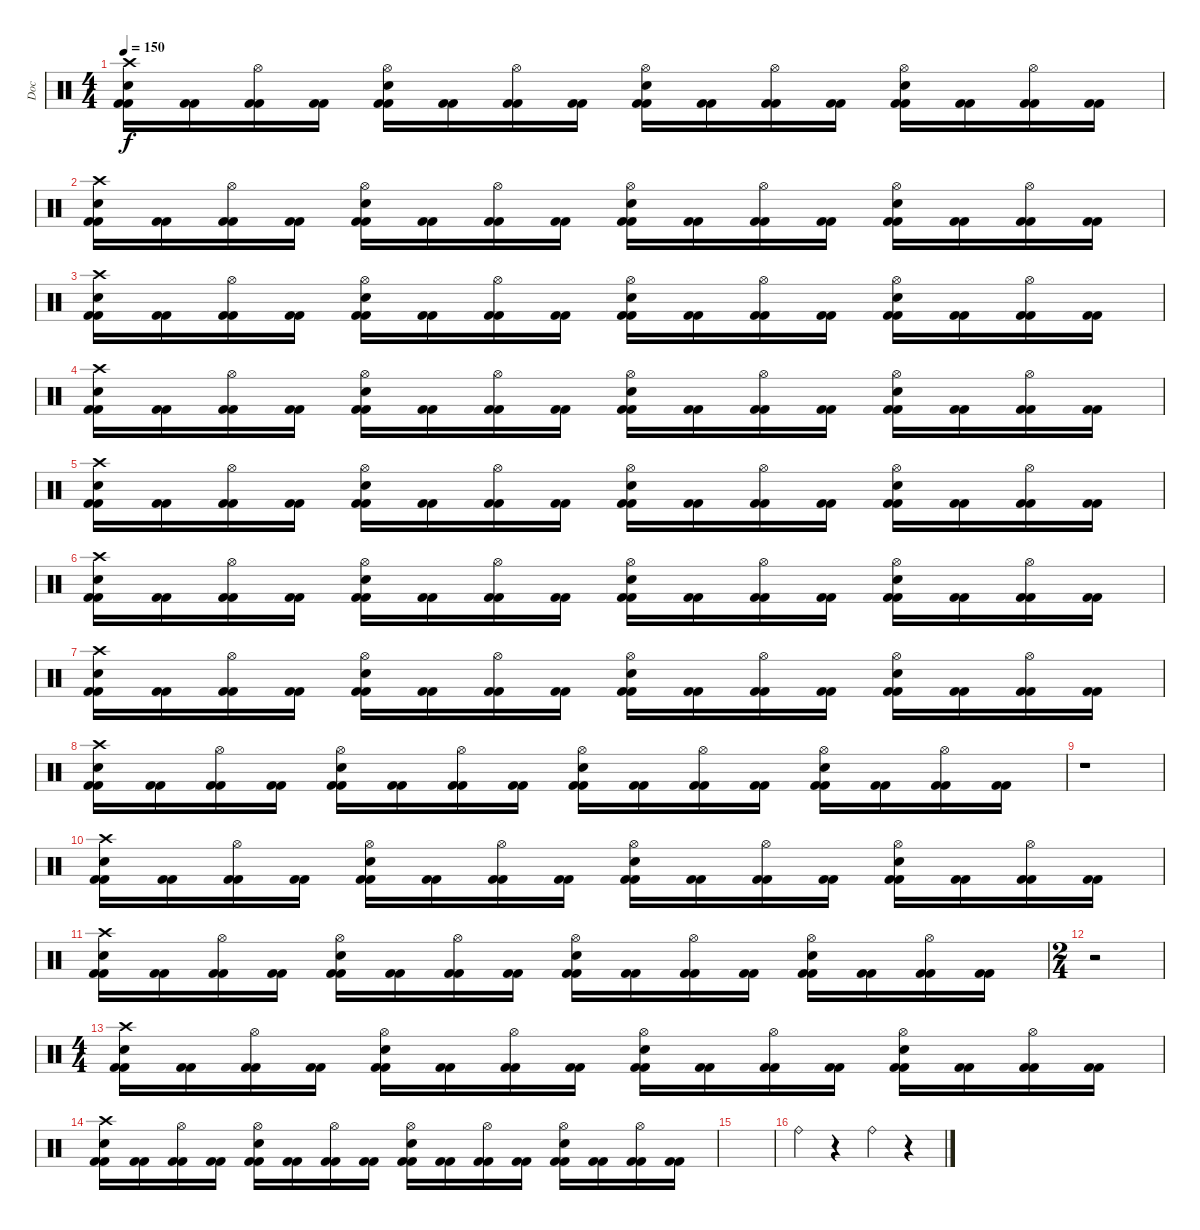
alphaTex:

\track ("Doc" "Doc") {instrument percussion}
\staff {score}
\articulation defaults
\ts (4 4)
\tempo 150
\clef neutral
\ks c
("Kick (hit) 2" "Crash high (hit)" "Electric Snare (hit)" "Kick (hit) 2").16{dy f} ("Kick (hit) 2" "Kick (hit) 2").16 ("Kick (hit) 2" "Hi-Hat (open)" "Kick (hit) 2").16 ("Kick (hit) 2" "Kick (hit) 2").16 ("Kick (hit) 2" "Hi-Hat (open)" "Electric Snare (hit)" "Kick (hit) 2").16 ("Kick (hit) 2" "Kick (hit) 2").16 ("Kick (hit) 2" "Hi-Hat (open)" "Kick (hit) 2").16 ("Kick (hit) 2" "Kick (hit) 2").16 ("Kick (hit) 2" "Hi-Hat (open)" "Electric Snare (hit)" "Kick (hit) 2").16 ("Kick (hit) 2" "Kick (hit) 2").16 ("Kick (hit) 2" "Hi-Hat (open)" "Kick (hit) 2").16 ("Kick (hit) 2" "Kick (hit) 2").16 ("Kick (hit) 2" "Hi-Hat (open)" "Electric Snare (hit)" "Kick (hit) 2").16 ("Kick (hit) 2" "Kick (hit) 2").16 ("Kick (hit) 2" "Hi-Hat (open)" "Kick (hit) 2").16 ("Kick (hit) 2" "Kick (hit) 2").16 |
("Kick (hit) 2" "Crash high (hit)" "Electric Snare (hit)" "Kick (hit) 2").16 ("Kick (hit) 2" "Kick (hit) 2").16 ("Kick (hit) 2" "Hi-Hat (open)" "Kick (hit) 2").16 ("Kick (hit) 2" "Kick (hit) 2").16 ("Kick (hit) 2" "Hi-Hat (open)" "Electric Snare (hit)" "Kick (hit) 2").16 ("Kick (hit) 2" "Kick (hit) 2").16 ("Kick (hit) 2" "Hi-Hat (open)" "Kick (hit) 2").16 ("Kick (hit) 2" "Kick (hit) 2").16 ("Kick (hit) 2" "Hi-Hat (open)" "Electric Snare (hit)" "Kick (hit) 2").16 ("Kick (hit) 2" "Kick (hit) 2").16 ("Kick (hit) 2" "Hi-Hat (open)" "Kick (hit) 2").16 ("Kick (hit) 2" "Kick (hit) 2").16 ("Kick (hit) 2" "Hi-Hat (open)" "Electric Snare (hit)" "Kick (hit) 2").16 ("Kick (hit) 2" "Kick (hit) 2").16 ("Kick (hit) 2" "Hi-Hat (open)" "Kick (hit) 2").16 ("Kick (hit) 2" "Kick (hit) 2").16 |
("Kick (hit) 2" "Crash high (hit)" "Electric Snare (hit)" "Kick (hit) 2").16 ("Kick (hit) 2" "Kick (hit) 2").16 ("Kick (hit) 2" "Hi-Hat (open)" "Kick (hit) 2").16 ("Kick (hit) 2" "Kick (hit) 2").16 ("Kick (hit) 2" "Hi-Hat (open)" "Electric Snare (hit)" "Kick (hit) 2").16 ("Kick (hit) 2" "Kick (hit) 2").16 ("Kick (hit) 2" "Hi-Hat (open)" "Kick (hit) 2").16 ("Kick (hit) 2" "Kick (hit) 2").16 ("Kick (hit) 2" "Hi-Hat (open)" "Electric Snare (hit)" "Kick (hit) 2").16 ("Kick (hit) 2" "Kick (hit) 2").16 ("Kick (hit) 2" "Hi-Hat (open)" "Kick (hit) 2").16 ("Kick (hit) 2" "Kick (hit) 2").16 ("Kick (hit) 2" "Hi-Hat (open)" "Electric Snare (hit)" "Kick (hit) 2").16 ("Kick (hit) 2" "Kick (hit) 2").16 ("Kick (hit) 2" "Hi-Hat (open)" "Kick (hit) 2").16 ("Kick (hit) 2" "Kick (hit) 2").16 |
("Kick (hit) 2" "Crash high (hit)" "Electric Snare (hit)" "Kick (hit) 2").16 ("Kick (hit) 2" "Kick (hit) 2").16 ("Kick (hit) 2" "Hi-Hat (open)" "Kick (hit) 2").16 ("Kick (hit) 2" "Kick (hit) 2").16 ("Kick (hit) 2" "Hi-Hat (open)" "Electric Snare (hit)" "Kick (hit) 2").16 ("Kick (hit) 2" "Kick (hit) 2").16 ("Kick (hit) 2" "Hi-Hat (open)" "Kick (hit) 2").16 ("Kick (hit) 2" "Kick (hit) 2").16 ("Kick (hit) 2" "Hi-Hat (open)" "Electric Snare (hit)" "Kick (hit) 2").16 ("Kick (hit) 2" "Kick (hit) 2").16 ("Kick (hit) 2" "Hi-Hat (open)" "Kick (hit) 2").16 ("Kick (hit) 2" "Kick (hit) 2").16 ("Kick (hit) 2" "Hi-Hat (open)" "Electric Snare (hit)" "Kick (hit) 2").16 ("Kick (hit) 2" "Kick (hit) 2").16 ("Kick (hit) 2" "Hi-Hat (open)" "Kick (hit) 2").16 ("Kick (hit) 2" "Kick (hit) 2").16 |
("Kick (hit) 2" "Crash high (hit)" "Electric Snare (hit)" "Kick (hit) 2").16 ("Kick (hit) 2" "Kick (hit) 2").16 ("Kick (hit) 2" "Hi-Hat (open)" "Kick (hit) 2").16 ("Kick (hit) 2" "Kick (hit) 2").16 ("Kick (hit) 2" "Hi-Hat (open)" "Electric Snare (hit)" "Kick (hit) 2").16 ("Kick (hit) 2" "Kick (hit) 2").16 ("Kick (hit) 2" "Hi-Hat (open)" "Kick (hit) 2").16 ("Kick (hit) 2" "Kick (hit) 2").16 ("Kick (hit) 2" "Hi-Hat (open)" "Electric Snare (hit)" "Kick (hit) 2").16 ("Kick (hit) 2" "Kick (hit) 2").16 ("Kick (hit) 2" "Hi-Hat (open)" "Kick (hit) 2").16 ("Kick (hit) 2" "Kick (hit) 2").16 ("Kick (hit) 2" "Hi-Hat (open)" "Electric Snare (hit)" "Kick (hit) 2").16 ("Kick (hit) 2" "Kick (hit) 2").16 ("Kick (hit) 2" "Hi-Hat (open)" "Kick (hit) 2").16 ("Kick (hit) 2" "Kick (hit) 2").16 |
("Kick (hit) 2" "Crash high (hit)" "Electric Snare (hit)" "Kick (hit) 2").16 ("Kick (hit) 2" "Kick (hit) 2").16 ("Kick (hit) 2" "Hi-Hat (open)" "Kick (hit) 2").16 ("Kick (hit) 2" "Kick (hit) 2").16 ("Kick (hit) 2" "Hi-Hat (open)" "Electric Snare (hit)" "Kick (hit) 2").16 ("Kick (hit) 2" "Kick (hit) 2").16 ("Kick (hit) 2" "Hi-Hat (open)" "Kick (hit) 2").16 ("Kick (hit) 2" "Kick (hit) 2").16 ("Kick (hit) 2" "Hi-Hat (open)" "Electric Snare (hit)" "Kick (hit) 2").16 ("Kick (hit) 2" "Kick (hit) 2").16 ("Kick (hit) 2" "Hi-Hat (open)" "Kick (hit) 2").16 ("Kick (hit) 2" "Kick (hit) 2").16 ("Kick (hit) 2" "Hi-Hat (open)" "Electric Snare (hit)" "Kick (hit) 2").16 ("Kick (hit) 2" "Kick (hit) 2").16 ("Kick (hit) 2" "Hi-Hat (open)" "Kick (hit) 2").16 ("Kick (hit) 2" "Kick (hit) 2").16 |
("Kick (hit) 2" "Crash high (hit)" "Electric Snare (hit)" "Kick (hit) 2").16 ("Kick (hit) 2" "Kick (hit) 2").16 ("Kick (hit) 2" "Hi-Hat (open)" "Kick (hit) 2").16 ("Kick (hit) 2" "Kick (hit) 2").16 ("Kick (hit) 2" "Hi-Hat (open)" "Electric Snare (hit)" "Kick (hit) 2").16 ("Kick (hit) 2" "Kick (hit) 2").16 ("Kick (hit) 2" "Hi-Hat (open)" "Kick (hit) 2").16 ("Kick (hit) 2" "Kick (hit) 2").16 ("Kick (hit) 2" "Hi-Hat (open)" "Electric Snare (hit)" "Kick (hit) 2").16 ("Kick (hit) 2" "Kick (hit) 2").16 ("Kick (hit) 2" "Hi-Hat (open)" "Kick (hit) 2").16 ("Kick (hit) 2" "Kick (hit) 2").16 ("Kick (hit) 2" "Hi-Hat (open)" "Electric Snare (hit)" "Kick (hit) 2").16 ("Kick (hit) 2" "Kick (hit) 2").16 ("Kick (hit) 2" "Hi-Hat (open)" "Kick (hit) 2").16 ("Kick (hit) 2" "Kick (hit) 2").16 |
("Kick (hit) 2" "Crash high (hit)" "Electric Snare (hit)" "Kick (hit) 2").16 ("Kick (hit) 2" "Kick (hit) 2").16 ("Kick (hit) 2" "Hi-Hat (open)" "Kick (hit) 2").16 ("Kick (hit) 2" "Kick (hit) 2").16 ("Kick (hit) 2" "Hi-Hat (open)" "Electric Snare (hit)" "Kick (hit) 2").16 ("Kick (hit) 2" "Kick (hit) 2").16 ("Kick (hit) 2" "Hi-Hat (open)" "Kick (hit) 2").16 ("Kick (hit) 2" "Kick (hit) 2").16 ("Kick (hit) 2" "Hi-Hat (open)" "Electric Snare (hit)" "Kick (hit) 2").16 ("Kick (hit) 2" "Kick (hit) 2").16 ("Kick (hit) 2" "Hi-Hat (open)" "Kick (hit) 2").16 ("Kick (hit) 2" "Kick (hit) 2").16 ("Kick (hit) 2" "Hi-Hat (open)" "Electric Snare (hit)" "Kick (hit) 2").16 ("Kick (hit) 2" "Kick (hit) 2").16 ("Kick (hit) 2" "Hi-Hat (open)" "Kick (hit) 2").16 ("Kick (hit) 2" "Kick (hit) 2").16 |
r.1 |
("Kick (hit) 2" "Crash high (hit)" "Electric Snare (hit)" "Kick (hit) 2").16 ("Kick (hit) 2" "Kick (hit) 2").16 ("Kick (hit) 2" "Hi-Hat (open)" "Kick (hit) 2").16 ("Kick (hit) 2" "Kick (hit) 2").16 ("Kick (hit) 2" "Hi-Hat (open)" "Electric Snare (hit)" "Kick (hit) 2").16 ("Kick (hit) 2" "Kick (hit) 2").16 ("Kick (hit) 2" "Hi-Hat (open)" "Kick (hit) 2").16 ("Kick (hit) 2" "Kick (hit) 2").16 ("Kick (hit) 2" "Hi-Hat (open)" "Electric Snare (hit)" "Kick (hit) 2").16 ("Kick (hit) 2" "Kick (hit) 2").16 ("Kick (hit) 2" "Hi-Hat (open)" "Kick (hit) 2").16 ("Kick (hit) 2" "Kick (hit) 2").16 ("Kick (hit) 2" "Hi-Hat (open)" "Electric Snare (hit)" "Kick (hit) 2").16 ("Kick (hit) 2" "Kick (hit) 2").16 ("Kick (hit) 2" "Hi-Hat (open)" "Kick (hit) 2").16 ("Kick (hit) 2" "Kick (hit) 2").16 |
("Kick (hit) 2" "Crash high (hit)" "Electric Snare (hit)" "Kick (hit) 2").16 ("Kick (hit) 2" "Kick (hit) 2").16 ("Kick (hit) 2" "Hi-Hat (open)" "Kick (hit) 2").16 ("Kick (hit) 2" "Kick (hit) 2").16 ("Kick (hit) 2" "Hi-Hat (open)" "Electric Snare (hit)" "Kick (hit) 2").16 ("Kick (hit) 2" "Kick (hit) 2").16 ("Kick (hit) 2" "Hi-Hat (open)" "Kick (hit) 2").16 ("Kick (hit) 2" "Kick (hit) 2").16 ("Kick (hit) 2" "Hi-Hat (open)" "Electric Snare (hit)" "Kick (hit) 2").16 ("Kick (hit) 2" "Kick (hit) 2").16 ("Kick (hit) 2" "Hi-Hat (open)" "Kick (hit) 2").16 ("Kick (hit) 2" "Kick (hit) 2").16 ("Kick (hit) 2" "Hi-Hat (open)" "Electric Snare (hit)" "Kick (hit) 2").16 ("Kick (hit) 2" "Kick (hit) 2").16 ("Kick (hit) 2" "Hi-Hat (open)" "Kick (hit) 2").16 ("Kick (hit) 2" "Kick (hit) 2").16 |
\ts (2 4)
r.2 |
\ts (4 4)
("Kick (hit) 2" "Crash high (hit)" "Electric Snare (hit)" "Kick (hit) 2").16 ("Kick (hit) 2" "Kick (hit) 2").16 ("Kick (hit) 2" "Hi-Hat (open)" "Kick (hit) 2").16 ("Kick (hit) 2" "Kick (hit) 2").16 ("Kick (hit) 2" "Hi-Hat (open)" "Electric Snare (hit)" "Kick (hit) 2").16 ("Kick (hit) 2" "Kick (hit) 2").16 ("Kick (hit) 2" "Hi-Hat (open)" "Kick (hit) 2").16 ("Kick (hit) 2" "Kick (hit) 2").16 ("Kick (hit) 2" "Hi-Hat (open)" "Electric Snare (hit)" "Kick (hit) 2").16 ("Kick (hit) 2" "Kick (hit) 2").16 ("Kick (hit) 2" "Hi-Hat (open)" "Kick (hit) 2").16 ("Kick (hit) 2" "Kick (hit) 2").16 ("Kick (hit) 2" "Hi-Hat (open)" "Electric Snare (hit)" "Kick (hit) 2").16 ("Kick (hit) 2" "Kick (hit) 2").16 ("Kick (hit) 2" "Hi-Hat (open)" "Kick (hit) 2").16 ("Kick (hit) 2" "Kick (hit) 2").16 |
("Kick (hit) 2" "Crash high (hit)" "Electric Snare (hit)" "Kick (hit) 2").16 ("Kick (hit) 2" "Kick (hit) 2").16 ("Kick (hit) 2" "Hi-Hat (open)" "Kick (hit) 2").16 ("Kick (hit) 2" "Kick (hit) 2").16 ("Kick (hit) 2" "Hi-Hat (open)" "Electric Snare (hit)" "Kick (hit) 2").16 ("Kick (hit) 2" "Kick (hit) 2").16 ("Kick (hit) 2" "Hi-Hat (open)" "Kick (hit) 2").16 ("Kick (hit) 2" "Kick (hit) 2").16 ("Kick (hit) 2" "Hi-Hat (open)" "Electric Snare (hit)" "Kick (hit) 2").16 ("Kick (hit) 2" "Kick (hit) 2").16 ("Kick (hit) 2" "Hi-Hat (open)" "Kick (hit) 2").16 ("Kick (hit) 2" "Kick (hit) 2").16 ("Kick (hit) 2" "Hi-Hat (open)" "Electric Snare (hit)" "Kick (hit) 2").16 ("Kick (hit) 2" "Kick (hit) 2").16 ("Kick (hit) 2" "Hi-Hat (open)" "Kick (hit) 2").16 ("Kick (hit) 2" "Kick (hit) 2").16 |
|
"Ride (bell)".4 r.4 "Ride (bell)".4 r.4
